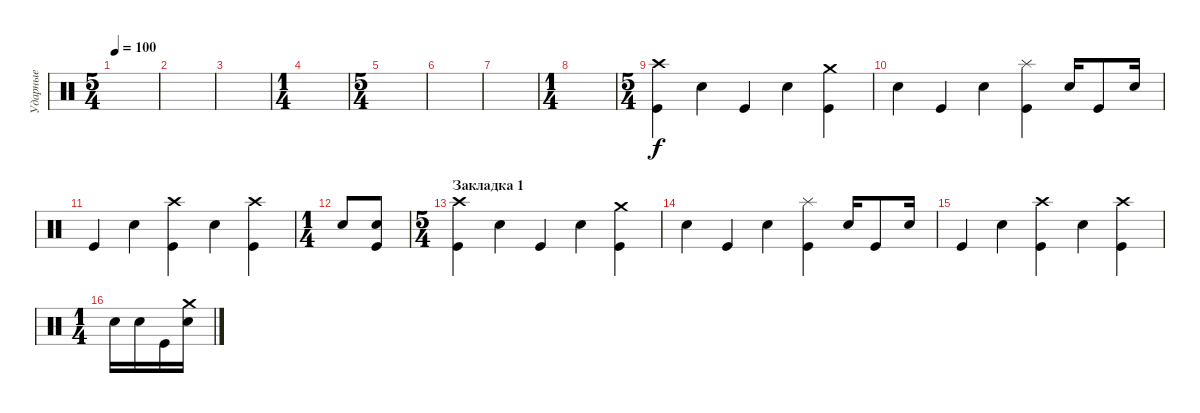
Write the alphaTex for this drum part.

\track ("Ударные" "Ударные") {instrument percussion}
\staff {score}
\articulation defaults
\ts (5 4)
\tempo 100
\clef neutral
\ks c
|
|
|
\ts (1 4)
|
\ts (5 4)
|
|
|
\ts (1 4)
|
\ts (5 4)
("Crash high (hit)" "Kick (hit)").4 "Electric Snare (hit)".4 "Kick (hit)".4 "Electric Snare (hit)".4 ("Crash medium (hit)" "Kick (hit)").4 |
"Electric Snare (hit)".4 "Kick (hit)".4 "Electric Snare (hit)".4 ("Splash (hit)" "Kick (hit)").4 "Electric Snare (hit)".16 "Kick (hit)".8 "Electric Snare (hit)".16 |
"Kick (hit)".4 "Electric Snare (hit)".4 ("Crash high (hit)" "Kick (hit)").4 "Electric Snare (hit)".4 ("Crash high (hit)" "Kick (hit)").4 |
\ts (1 4)
"Electric Snare (hit)".8 ("Kick (hit)" "Electric Snare (hit)").8 |
\ts (5 4)
\section ("" "Закладка 1")
("Crash high (hit)" "Kick (hit)").4 "Electric Snare (hit)".4 "Kick (hit)".4 "Electric Snare (hit)".4 ("Crash medium (hit)" "Kick (hit)").4 |
"Electric Snare (hit)".4 "Kick (hit)".4 "Electric Snare (hit)".4 ("Splash (hit)" "Kick (hit)").4 "Electric Snare (hit)".16 "Kick (hit)".8 "Electric Snare (hit)".16 |
"Kick (hit)".4 "Electric Snare (hit)".4 ("Crash high (hit)" "Kick (hit)").4 "Electric Snare (hit)".4 ("Crash high (hit)" "Kick (hit)").4 |
\ts (1 4)
"Electric Snare (hit)".16 "Electric Snare (hit)".16 "Kick (hit)".16 ("Crash medium (hit)" "Electric Snare (hit)").16
